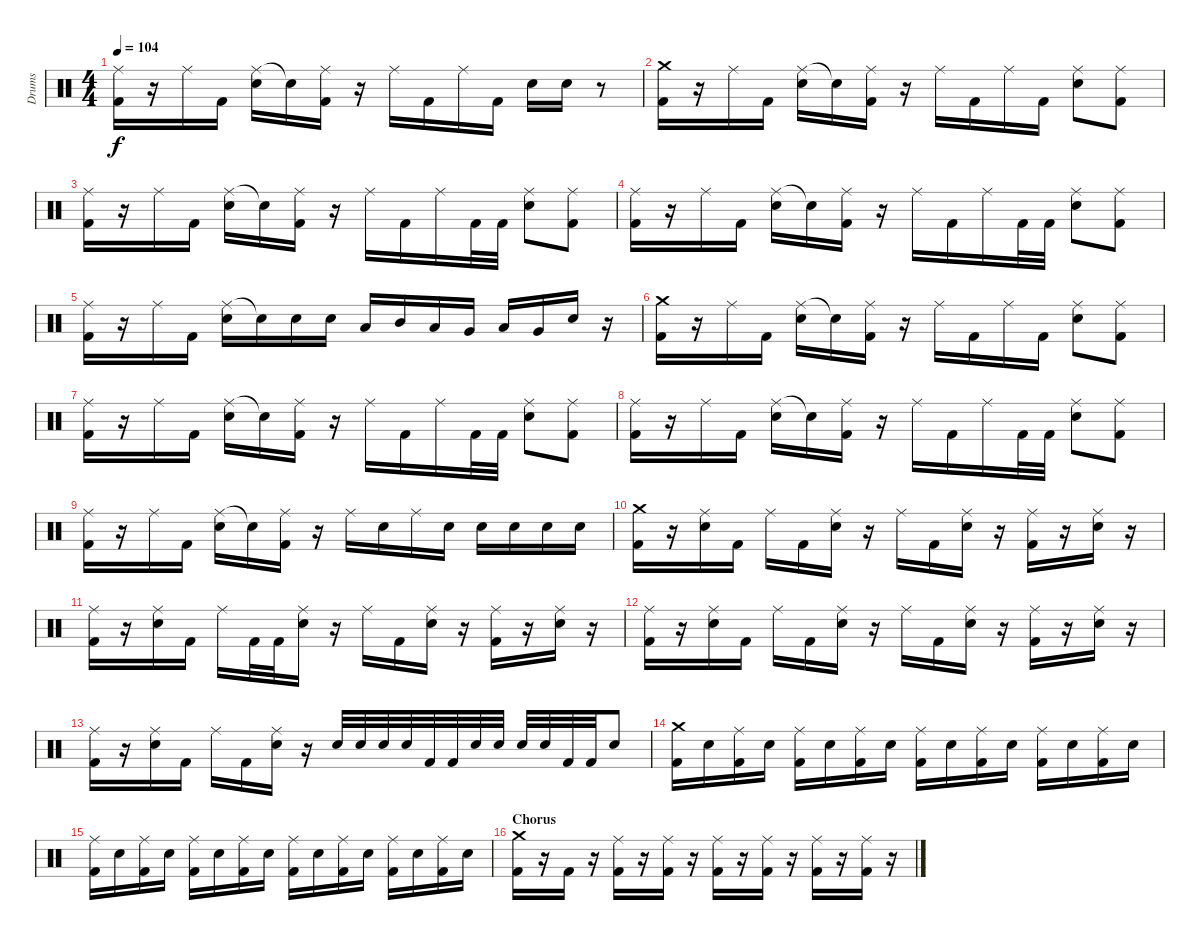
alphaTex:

\track ("Drums" "Drums") {instrument percussion}
\staff {score}
\articulation defaults
\ts (4 4)
\tempo 104
\clef neutral
\ks c
("Ride (middle)" "Kick (hit) 2").16{dy f} r.16 "Ride (middle)".16 "Kick (hit) 2".16 ("Ride (middle)" "Electric Snare (hit)").16 "Snare (hit)"{t}.16 ("Ride (middle)" "Kick (hit) 2").16 r.16 "Ride (middle)".16 "Kick (hit) 2".16 "Ride (middle)".16 "Kick (hit) 2".16 "Electric Snare (hit)".16 "Electric Snare (hit)".16 r.8 |
("Crash medium (hit)" "Kick (hit) 2").16 r.16 "Ride (middle)".16 "Kick (hit) 2".16 ("Ride (middle)" "Electric Snare (hit)").16 "Snare (hit)"{t}.16 ("Ride (middle)" "Kick (hit) 2").16 r.16 "Ride (middle)".16 "Kick (hit) 2".16 "Ride (middle)".16 "Kick (hit) 2".16 ("Ride (middle)" "Electric Snare (hit)").8 ("Ride (middle)" "Kick (hit) 2").8 |
("Ride (middle)" "Kick (hit) 2").16 r.16 "Ride (middle)".16 "Kick (hit) 2".16 ("Ride (middle)" "Electric Snare (hit)").16 "Snare (hit)"{t}.16 ("Ride (middle)" "Kick (hit) 2").16 r.16 "Ride (middle)".16 "Kick (hit) 2".16 "Ride (middle)".16 "Kick (hit) 2".32 "Kick (hit) 2".32 ("Ride (middle)" "Electric Snare (hit)").8 ("Ride (middle)" "Kick (hit) 2").8 |
("Ride (middle)" "Kick (hit) 2").16 r.16 "Ride (middle)".16 "Kick (hit) 2".16 ("Ride (middle)" "Electric Snare (hit)").16 "Snare (hit)"{t}.16 ("Ride (middle)" "Kick (hit) 2").16 r.16 "Ride (middle)".16 "Kick (hit) 2".16 "Ride (middle)".16 "Kick (hit) 2".32 "Kick (hit) 2".32 ("Ride (middle)" "Electric Snare (hit)").8 ("Ride (middle)" "Kick (hit) 2").8 |
("Ride (middle)" "Kick (hit) 2").16 r.16 "Ride (middle)".16 "Kick (hit) 2".16 ("Ride (middle)" "Electric Snare (hit)").16 "Snare (hit)"{t}.16 "Electric Snare (hit)".16 "Electric Snare (hit)".16 "Low Tom (hit)".16 "Mid Tom (hit)".16 "Low Tom (hit)".16 "Very Low Tom (hit)".16 "Low Tom (hit)".16 "Very Low Tom (hit)".16 "Electric Snare (hit)".16 r.16 |
("Crash medium (hit)" "Kick (hit) 2").16 r.16 "Ride (middle)".16 "Kick (hit) 2".16 ("Ride (middle)" "Electric Snare (hit)").16 "Snare (hit)"{t}.16 ("Ride (middle)" "Kick (hit) 2").16 r.16 "Ride (middle)".16 "Kick (hit) 2".16 "Ride (middle)".16 "Kick (hit) 2".16 ("Ride (middle)" "Electric Snare (hit)").8 ("Ride (middle)" "Kick (hit) 2").8 |
("Ride (middle)" "Kick (hit) 2").16 r.16 "Ride (middle)".16 "Kick (hit) 2".16 ("Ride (middle)" "Electric Snare (hit)").16 "Snare (hit)"{t}.16 ("Ride (middle)" "Kick (hit) 2").16 r.16 "Ride (middle)".16 "Kick (hit) 2".16 "Ride (middle)".16 "Kick (hit) 2".32 "Kick (hit) 2".32 ("Ride (middle)" "Electric Snare (hit)").8 ("Ride (middle)" "Kick (hit) 2").8 |
("Ride (middle)" "Kick (hit) 2").16 r.16 "Ride (middle)".16 "Kick (hit) 2".16 ("Ride (middle)" "Electric Snare (hit)").16 "Snare (hit)"{t}.16 ("Ride (middle)" "Kick (hit) 2").16 r.16 "Ride (middle)".16 "Kick (hit) 2".16 "Ride (middle)".16 "Kick (hit) 2".32 "Kick (hit) 2".32 ("Ride (middle)" "Electric Snare (hit)").8 ("Ride (middle)" "Kick (hit) 2").8 |
("Ride (middle)" "Kick (hit) 2").16 r.16 "Ride (middle)".16 "Kick (hit) 2".16 ("Ride (middle)" "Electric Snare (hit)").16 "Snare (hit)"{t}.16 ("Ride (middle)" "Kick (hit) 2").16 r.16 "Ride (middle)".16 "Electric Snare (hit)".16 "Ride (middle)".16 "Electric Snare (hit)".16 "Electric Snare (hit)".16 "Electric Snare (hit)".16 "Electric Snare (hit)".16 "Electric Snare (hit)".16 |
("Crash medium (hit)" "Kick (hit) 2").16 r.16 ("Ride (middle)" "Electric Snare (hit)").16 "Kick (hit) 2".16 "Ride (middle)".16 "Kick (hit) 2".16 ("Ride (middle)" "Electric Snare (hit)").16 r.16 "Ride (middle)".16 "Kick (hit) 2".16 ("Ride (middle)" "Electric Snare (hit)").16 r.16 ("Ride (middle)" "Kick (hit) 2").16 r.16 ("Ride (middle)" "Electric Snare (hit)").16 r.16 |
("Ride (middle)" "Kick (hit) 2").16 r.16 ("Ride (middle)" "Electric Snare (hit)").16 "Kick (hit) 2".16 "Ride (middle)".16 "Kick (hit) 2".32 "Kick (hit) 2".32 ("Ride (middle)" "Electric Snare (hit)").16 r.16 "Ride (middle)".16 "Kick (hit) 2".16 ("Ride (middle)" "Electric Snare (hit)").16 r.16 ("Ride (middle)" "Kick (hit) 2").16 r.16 ("Ride (middle)" "Electric Snare (hit)").16 r.16 |
("Ride (middle)" "Kick (hit) 2").16 r.16 ("Ride (middle)" "Electric Snare (hit)").16 "Kick (hit) 2".16 "Ride (middle)".16 "Kick (hit) 2".16 ("Ride (middle)" "Electric Snare (hit)").16 r.16 "Ride (middle)".16 "Kick (hit) 2".16 ("Ride (middle)" "Electric Snare (hit)").16 r.16 ("Ride (middle)" "Kick (hit) 2").16 r.16 ("Ride (middle)" "Electric Snare (hit)").16 r.16 |
("Ride (middle)" "Kick (hit) 2").16 r.16 ("Ride (middle)" "Electric Snare (hit)").16 "Kick (hit) 2".16 "Ride (middle)".16 "Kick (hit) 2".16 ("Ride (middle)" "Electric Snare (hit)").16 r.16 "Electric Snare (hit)".32 "Electric Snare (hit)".32 "Electric Snare (hit)".32 "Electric Snare (hit)".32 "Kick (hit) 2".32 "Kick (hit) 2".32 "Electric Snare (hit)".32 "Electric Snare (hit)".32 "Electric Snare (hit)".32 "Electric Snare (hit)".32 "Kick (hit) 2".32 "Kick (hit) 2".32 "Electric Snare (hit)".8 |
\section ("" "")
("Crash medium (hit)" "Kick (hit) 2").16 "Electric Snare (hit)".16 ("Ride (middle)" "Kick (hit) 2").16 "Electric Snare (hit)".16 ("Ride (middle)" "Kick (hit) 2").16 "Electric Snare (hit)".16 ("Ride (middle)" "Kick (hit) 2").16 "Electric Snare (hit)".16 ("Ride (middle)" "Kick (hit) 2").16 "Electric Snare (hit)".16 ("Ride (middle)" "Kick (hit) 2").16 "Electric Snare (hit)".16 ("Ride (middle)" "Kick (hit) 2").16 "Electric Snare (hit)".16 ("Ride (middle)" "Kick (hit) 2").16 "Electric Snare (hit)".16 |
("Ride (middle)" "Kick (hit) 2").16 "Electric Snare (hit)".16 ("Ride (middle)" "Kick (hit) 2").16 "Electric Snare (hit)".16 ("Ride (middle)" "Kick (hit) 2").16 "Electric Snare (hit)".16 ("Ride (middle)" "Kick (hit) 2").16 "Electric Snare (hit)".16 ("Ride (middle)" "Kick (hit) 2").16 "Electric Snare (hit)".16 ("Ride (middle)" "Kick (hit) 2").16 "Electric Snare (hit)".16 ("Ride (middle)" "Kick (hit) 2").16 "Electric Snare (hit)".16 ("Ride (middle)" "Kick (hit) 2").16 "Electric Snare (hit)".16 |
\section ("" "Chorus")
("Crash medium (hit)" "Kick (hit) 2").16 r.16 "Kick (hit) 2".16 r.16 ("Ride (middle)" "Kick (hit) 2").16 r.16 ("Ride (middle)" "Kick (hit) 2").16 r.16 ("Ride (middle)" "Kick (hit) 2").16 r.16 ("Ride (middle)" "Kick (hit) 2").16 r.16 ("Ride (middle)" "Kick (hit) 2").16 r.16 ("Ride (middle)" "Kick (hit) 2").16 r.16
